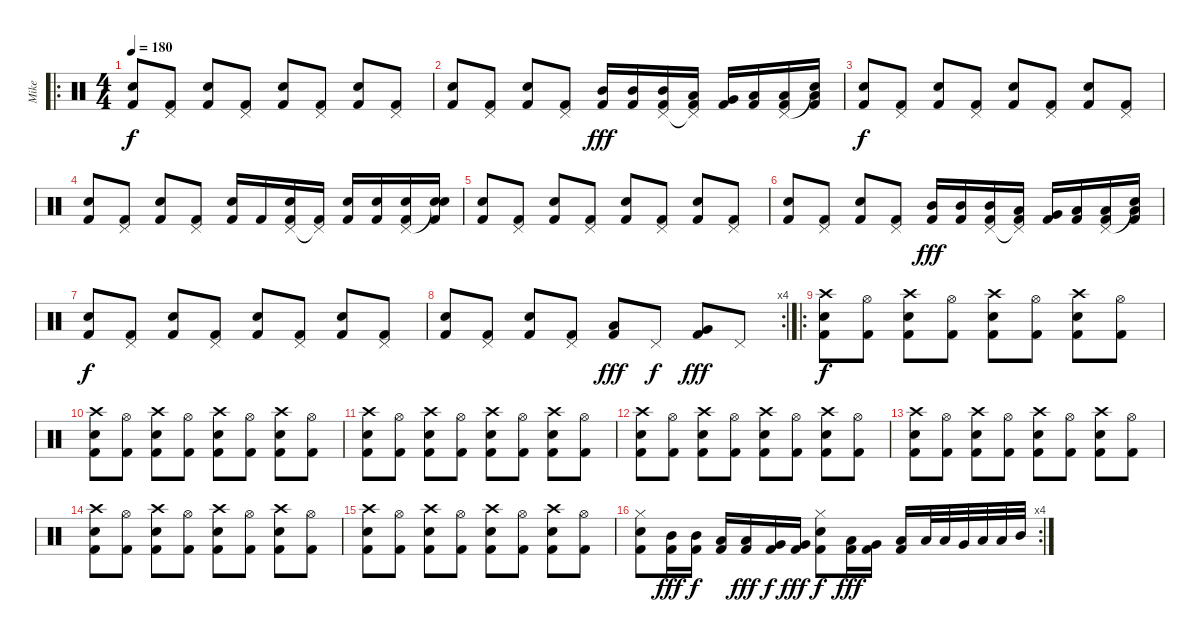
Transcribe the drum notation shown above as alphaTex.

\track ("Mike" "Mike") {instrument percussion}
\staff {score}
\articulation defaults
\ro
\ts (4 4)
\tempo 180
\clef neutral
\ks c
("Electric Snare (hit)" "Kick (hit) 2").8{dy f} ("Pedal Hi-Hat (hit)" "Kick (hit) 2").8 ("Electric Snare (hit)" "Kick (hit) 2").8 ("Pedal Hi-Hat (hit)" "Kick (hit) 2").8 ("Electric Snare (hit)" "Kick (hit) 2").8 ("Pedal Hi-Hat (hit)" "Kick (hit) 2").8 ("Electric Snare (hit)" "Kick (hit) 2").8 ("Pedal Hi-Hat (hit)" "Kick (hit) 2").8 |
("Electric Snare (hit)" "Kick (hit) 2").8 ("Pedal Hi-Hat (hit)" "Kick (hit) 2").8 ("Electric Snare (hit)" "Kick (hit) 2").8 ("Pedal Hi-Hat (hit)" "Kick (hit) 2").8 ("Mid Tom (hit)" "Kick (hit) 2").16{dy fff} ("Mid Tom (hit)" "Kick (hit) 2").16 ("Mid Tom (hit)" "Pedal Hi-Hat (hit)" "Kick (hit) 2").16 ("Low Tom (hit)" "Pedal Hi-Hat (hit)"{t} "Kick (hit) 2").16 ("Very Low Tom (hit)" "Kick (hit) 2").16 ("Low Tom (hit)" "Kick (hit) 2").16 ("Low Tom (hit)" "Pedal Hi-Hat (hit)" "Kick (hit) 2").16 ("Low Floor Tom (hit)" "Snare (hit)"{t} "Kick (hit) 2").16 |
("Electric Snare (hit)" "Kick (hit) 2").8{dy f} ("Pedal Hi-Hat (hit)" "Kick (hit) 2").8 ("Electric Snare (hit)" "Kick (hit) 2").8 ("Pedal Hi-Hat (hit)" "Kick (hit) 2").8 ("Electric Snare (hit)" "Kick (hit) 2").8 ("Pedal Hi-Hat (hit)" "Kick (hit) 2").8 ("Electric Snare (hit)" "Kick (hit) 2").8 ("Pedal Hi-Hat (hit)" "Kick (hit) 2").8 |
("Electric Snare (hit)" "Kick (hit) 2").8 ("Pedal Hi-Hat (hit)" "Kick (hit) 2").8 ("Electric Snare (hit)" "Kick (hit) 2").8 ("Pedal Hi-Hat (hit)" "Kick (hit) 2").8 ("Electric Snare (hit)" "Kick (hit) 2").16 "Kick (hit) 2".16 ("Pedal Hi-Hat (hit)" "Electric Snare (hit)" "Kick (hit) 2").16 ("Pedal Hi-Hat (hit)"{t} "Kick (hit) 2").16 ("Electric Snare (hit)" "Kick (hit) 2").16 ("Electric Snare (hit)" "Kick (hit) 2").16 ("Pedal Hi-Hat (hit)" "Electric Snare (hit)" "Kick (hit) 2").16 ("Snare (hit)"{t} "Electric Snare (hit)" "Kick (hit) 2").16 |
("Electric Snare (hit)" "Kick (hit) 2").8 ("Pedal Hi-Hat (hit)" "Kick (hit) 2").8 ("Electric Snare (hit)" "Kick (hit) 2").8 ("Pedal Hi-Hat (hit)" "Kick (hit) 2").8 ("Electric Snare (hit)" "Kick (hit) 2").8 ("Pedal Hi-Hat (hit)" "Kick (hit) 2").8 ("Electric Snare (hit)" "Kick (hit) 2").8 ("Pedal Hi-Hat (hit)" "Kick (hit) 2").8 |
("Electric Snare (hit)" "Kick (hit) 2").8 ("Pedal Hi-Hat (hit)" "Kick (hit) 2").8 ("Electric Snare (hit)" "Kick (hit) 2").8 ("Pedal Hi-Hat (hit)" "Kick (hit) 2").8 ("Mid Tom (hit)" "Kick (hit) 2").16{dy fff} ("Mid Tom (hit)" "Kick (hit) 2").16 ("Mid Tom (hit)" "Pedal Hi-Hat (hit)" "Kick (hit) 2").16 ("Low Tom (hit)" "Pedal Hi-Hat (hit)"{t} "Kick (hit) 2").16 ("Very Low Tom (hit)" "Kick (hit) 2").16 ("Low Tom (hit)" "Kick (hit) 2").16 ("Low Tom (hit)" "Pedal Hi-Hat (hit)" "Kick (hit) 2").16 ("Low Floor Tom (hit)" "Snare (hit)"{t} "Kick (hit) 2").16 |
("Electric Snare (hit)" "Kick (hit) 2").8{dy f} ("Pedal Hi-Hat (hit)" "Kick (hit) 2").8 ("Electric Snare (hit)" "Kick (hit) 2").8 ("Pedal Hi-Hat (hit)" "Kick (hit) 2").8 ("Electric Snare (hit)" "Kick (hit) 2").8 ("Pedal Hi-Hat (hit)" "Kick (hit) 2").8 ("Electric Snare (hit)" "Kick (hit) 2").8 ("Pedal Hi-Hat (hit)" "Kick (hit) 2").8 |
\rc 4
("Electric Snare (hit)" "Kick (hit) 2").8 ("Pedal Hi-Hat (hit)" "Kick (hit) 2").8 ("Electric Snare (hit)" "Kick (hit) 2").8 ("Pedal Hi-Hat (hit)" "Kick (hit) 2").8 ("Low Tom (hit)" "Kick (hit) 2").8{dy fff} "Pedal Hi-Hat (hit)".8{dy f} ("Very Low Tom (hit)" "Kick (hit) 2").8{dy fff} "Pedal Hi-Hat (hit)".8 |
\ro
("Crash high (hit)" "Electric Snare (hit)" "Kick (hit) 2").8{dy f} ("Hi-Hat (open)" "Kick (hit) 2").8 ("Crash high (hit)" "Electric Snare (hit)" "Kick (hit) 2").8 ("Hi-Hat (open)" "Kick (hit) 2").8 ("Crash high (hit)" "Electric Snare (hit)" "Kick (hit) 2").8 ("Hi-Hat (open)" "Kick (hit) 2").8 ("Crash high (hit)" "Electric Snare (hit)" "Kick (hit) 2").8 ("Hi-Hat (open)" "Kick (hit) 2").8 |
("Crash high (hit)" "Electric Snare (hit)" "Kick (hit) 2").8 ("Hi-Hat (open)" "Kick (hit) 2").8 ("Crash high (hit)" "Electric Snare (hit)" "Kick (hit) 2").8 ("Hi-Hat (open)" "Kick (hit) 2").8 ("Crash high (hit)" "Electric Snare (hit)" "Kick (hit) 2").8 ("Hi-Hat (open)" "Kick (hit) 2").8 ("Crash high (hit)" "Electric Snare (hit)" "Kick (hit) 2").8 ("Hi-Hat (open)" "Kick (hit) 2").8 |
("Crash high (hit)" "Electric Snare (hit)" "Kick (hit) 2").8 ("Hi-Hat (open)" "Kick (hit) 2").8 ("Crash high (hit)" "Electric Snare (hit)" "Kick (hit) 2").8 ("Hi-Hat (open)" "Kick (hit) 2").8 ("Crash high (hit)" "Electric Snare (hit)" "Kick (hit) 2").8 ("Hi-Hat (open)" "Kick (hit) 2").8 ("Crash high (hit)" "Electric Snare (hit)" "Kick (hit) 2").8 ("Hi-Hat (open)" "Kick (hit) 2").8 |
("Crash high (hit)" "Electric Snare (hit)" "Kick (hit) 2").8 ("Hi-Hat (open)" "Kick (hit) 2").8 ("Crash high (hit)" "Electric Snare (hit)" "Kick (hit) 2").8 ("Hi-Hat (open)" "Kick (hit) 2").8 ("Crash high (hit)" "Electric Snare (hit)" "Kick (hit) 2").8 ("Hi-Hat (open)" "Kick (hit) 2").8 ("Crash high (hit)" "Electric Snare (hit)" "Kick (hit) 2").8 ("Hi-Hat (open)" "Kick (hit) 2").8 |
("Crash high (hit)" "Electric Snare (hit)" "Kick (hit) 2").8 ("Hi-Hat (open)" "Kick (hit) 2").8 ("Crash high (hit)" "Electric Snare (hit)" "Kick (hit) 2").8 ("Hi-Hat (open)" "Kick (hit) 2").8 ("Crash high (hit)" "Electric Snare (hit)" "Kick (hit) 2").8 ("Hi-Hat (open)" "Kick (hit) 2").8 ("Crash high (hit)" "Electric Snare (hit)" "Kick (hit) 2").8 ("Hi-Hat (open)" "Kick (hit) 2").8 |
("Crash high (hit)" "Electric Snare (hit)" "Kick (hit) 2").8 ("Hi-Hat (open)" "Kick (hit) 2").8 ("Crash high (hit)" "Electric Snare (hit)" "Kick (hit) 2").8 ("Hi-Hat (open)" "Kick (hit) 2").8 ("Crash high (hit)" "Electric Snare (hit)" "Kick (hit) 2").8 ("Hi-Hat (open)" "Kick (hit) 2").8 ("Crash high (hit)" "Electric Snare (hit)" "Kick (hit) 2").8 ("Hi-Hat (open)" "Kick (hit) 2").8 |
("Crash high (hit)" "Electric Snare (hit)" "Kick (hit) 2").8 ("Hi-Hat (open)" "Kick (hit) 2").8 ("Crash high (hit)" "Electric Snare (hit)" "Kick (hit) 2").8 ("Hi-Hat (open)" "Kick (hit) 2").8 ("Crash high (hit)" "Electric Snare (hit)" "Kick (hit) 2").8 ("Hi-Hat (open)" "Kick (hit) 2").8 ("Crash high (hit)" "Electric Snare (hit)" "Kick (hit) 2").8 ("Hi-Hat (open)" "Kick (hit) 2").8 |
\rc 4
("Hi-Hat (closed)" "Electric Snare (hit)" "Kick (hit) 2").8 ("Mid Tom (hit)" "Kick (hit) 2").16{dy fff} ("Mid Tom (hit)" "Kick (hit) 2").16{dy f} ("Low Tom (hit)" "Kick (hit) 2").16 ("Low Tom (hit)" "Kick (hit) 2").16{dy fff} ("Very Low Tom (hit)" "Kick (hit) 2").16{dy f} ("Very Low Tom (hit)" "Kick (hit) 2").16{dy fff} ("Hi-Hat (closed)" "Electric Snare (hit)" "Kick (hit) 2").8{dy f} ("Low Tom (hit)" "Kick (hit) 2").16{dy fff} ("Very Low Tom (hit)" "Kick (hit) 2").16 ("Low Floor Tom (hit)" "Kick (hit) 2").16 "Low Floor Tom (hit)".32 "Low Floor Tom (hit)".32 "Very Low Tom (hit)".32 "Low Tom (hit)".32 "Low Tom (hit)".32 "Mid Tom (hit)".32
